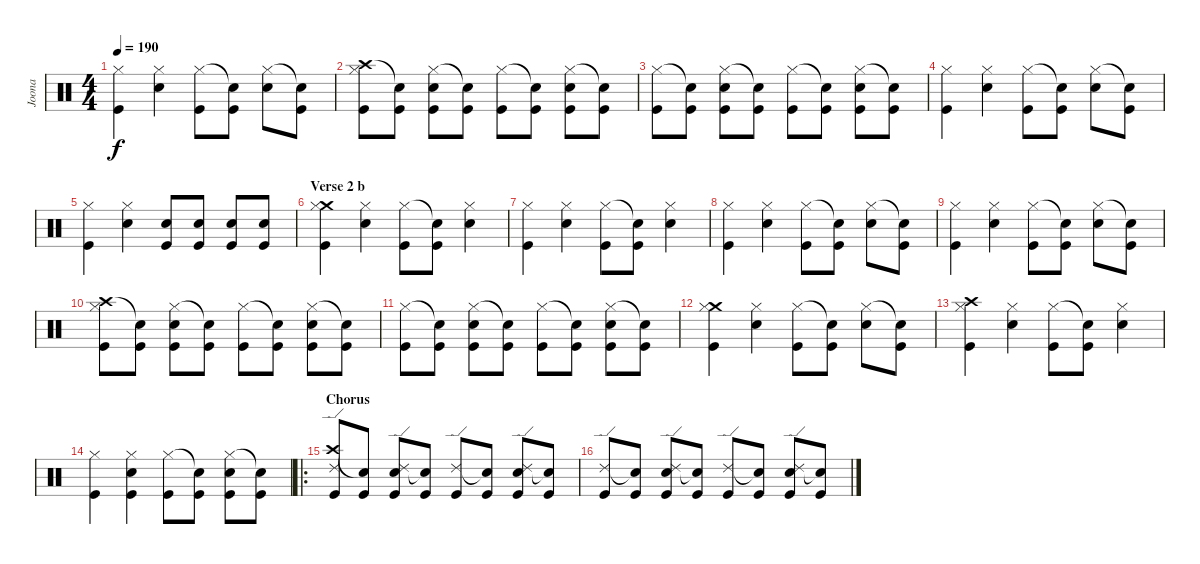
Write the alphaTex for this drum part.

\track ("Joona" "Joona") {instrument percussion}
\staff {score}
\articulation defaults
\ts (4 4)
\tempo 190
\clef neutral
\ks c
("Hi-Hat (closed)" "Kick (hit)").4{dy f} ("Hi-Hat (closed)" "Snare (hit) 2").4 ("Hi-Hat (closed)" "Kick (hit)").8 ("Snare (hit)"{t} "Kick (hit)").8 ("Hi-Hat (closed)" "Snare (hit) 2").8 ("Snare (hit)"{t} "Kick (hit)").8 |
("Crash high (hit)" "Hi-Hat (closed)" "Kick (hit)").8 ("Snare (hit)"{t} "Kick (hit)").8 ("Hi-Hat (closed)" "Snare (hit) 2" "Kick (hit)").8 ("Snare (hit)"{t} "Kick (hit)").8 ("Hi-Hat (closed)" "Kick (hit)").8 ("Snare (hit)"{t} "Kick (hit)").8 ("Hi-Hat (closed)" "Snare (hit) 2" "Kick (hit)").8 ("Snare (hit)"{t} "Kick (hit)").8 |
("Hi-Hat (closed)" "Kick (hit)").8 ("Snare (hit)"{t} "Kick (hit)").8 ("Hi-Hat (closed)" "Snare (hit) 2" "Kick (hit)").8 ("Snare (hit)"{t} "Kick (hit)").8 ("Hi-Hat (closed)" "Kick (hit)").8 ("Snare (hit)"{t} "Kick (hit)").8 ("Hi-Hat (closed)" "Snare (hit) 2" "Kick (hit)").8 ("Snare (hit)"{t} "Kick (hit)").8 |
("Hi-Hat (closed)" "Kick (hit)").4 ("Hi-Hat (closed)" "Snare (hit) 2").4 ("Hi-Hat (closed)" "Kick (hit)").8 ("Snare (hit)"{t} "Kick (hit)").8 ("Hi-Hat (closed)" "Snare (hit) 2").8 ("Snare (hit)"{t} "Kick (hit)").8 |
("Hi-Hat (closed)" "Kick (hit)").4 ("Hi-Hat (closed)" "Snare (hit) 2").4 ("Snare (hit) 2" "Kick (hit)").8 ("Snare (hit) 2" "Kick (hit)").8 ("Snare (hit) 2" "Kick (hit)").8 ("Snare (hit) 2" "Kick (hit)").8 |
\section ("" "Verse 2 b")
("Crash medium (hit)" "Hi-Hat (closed)" "Kick (hit)").4 ("Hi-Hat (closed)" "Snare (hit) 2").4 ("Hi-Hat (closed)" "Kick (hit)").8 ("Snare (hit)"{t} "Kick (hit)").8 ("Hi-Hat (closed)" "Snare (hit) 2").4 |
("Hi-Hat (closed)" "Kick (hit)").4 ("Hi-Hat (closed)" "Snare (hit) 2").4 ("Hi-Hat (closed)" "Kick (hit)").8 ("Snare (hit)"{t} "Kick (hit)").8 ("Hi-Hat (closed)" "Snare (hit) 2").4 |
("Hi-Hat (closed)" "Kick (hit)").4 ("Hi-Hat (closed)" "Snare (hit) 2").4 ("Hi-Hat (closed)" "Kick (hit)").8 ("Snare (hit)"{t} "Kick (hit)").8 ("Hi-Hat (closed)" "Snare (hit) 2").8 ("Snare (hit)"{t} "Kick (hit)").8 |
("Hi-Hat (closed)" "Kick (hit)").4 ("Hi-Hat (closed)" "Snare (hit) 2").4 ("Hi-Hat (closed)" "Kick (hit)").8 ("Snare (hit)"{t} "Kick (hit)").8 ("Hi-Hat (closed)" "Snare (hit) 2").8 ("Snare (hit)"{t} "Kick (hit)").8 |
("Crash high (hit)" "Hi-Hat (closed)" "Kick (hit)").8 ("Snare (hit)"{t} "Kick (hit)").8 ("Hi-Hat (closed)" "Snare (hit) 2" "Kick (hit)").8 ("Snare (hit)"{t} "Kick (hit)").8 ("Hi-Hat (closed)" "Kick (hit)").8 ("Snare (hit)"{t} "Kick (hit)").8 ("Hi-Hat (closed)" "Snare (hit) 2" "Kick (hit)").8 ("Snare (hit)"{t} "Kick (hit)").8 |
("Hi-Hat (closed)" "Kick (hit)").8 ("Snare (hit)"{t} "Kick (hit)").8 ("Hi-Hat (closed)" "Snare (hit) 2" "Kick (hit)").8 ("Snare (hit)"{t} "Kick (hit)").8 ("Hi-Hat (closed)" "Kick (hit)").8 ("Snare (hit)"{t} "Kick (hit)").8 ("Hi-Hat (closed)" "Snare (hit) 2" "Kick (hit)").8 ("Snare (hit)"{t} "Kick (hit)").8 |
("Crash medium (hit)" "Hi-Hat (closed)" "Kick (hit)").4 ("Hi-Hat (closed)" "Snare (hit) 2").4 ("Hi-Hat (closed)" "Kick (hit)").8 ("Snare (hit)"{t} "Kick (hit)").8 ("Hi-Hat (closed)" "Snare (hit) 2").8 ("Snare (hit)"{t} "Kick (hit)").8 |
("Crash high (hit)" "Hi-Hat (closed)" "Kick (hit)").4 ("Hi-Hat (closed)" "Snare (hit) 2").4 ("Hi-Hat (closed)" "Kick (hit)").8 ("Snare (hit)"{t} "Kick (hit)").8 ("Hi-Hat (closed)" "Snare (hit) 2").4 |
("Hi-Hat (closed)" "Kick (hit)").4 ("Hi-Hat (closed)" "Snare (hit) 2" "Kick (hit)").4 ("Hi-Hat (closed)" "Kick (hit)").8 ("Snare (hit)"{t} "Kick (hit)").8 ("Hi-Hat (closed)" "Snare (hit) 2" "Kick (hit)").8 ("Snare (hit)"{t} "Kick (hit)").8 |
\ro
\section ("" "Chorus")
("Crash high (hit)" "Ride (edge) 2" "Kick (hit)").8 ("Snare (hit)"{t} "Kick (hit)").8 ("Ride (edge) 2" "Snare (hit) 2" "Kick (hit)").8 ("Snare (hit)"{t} "Kick (hit)").8 ("Ride (edge) 2" "Kick (hit)").8 ("Snare (hit)"{t} "Kick (hit)").8 ("Ride (edge) 2" "Snare (hit) 2" "Kick (hit)").8 ("Snare (hit)"{t} "Kick (hit)").8 |
("Ride (edge) 2" "Kick (hit)").8 ("Snare (hit)"{t} "Kick (hit)").8 ("Ride (edge) 2" "Snare (hit) 2" "Kick (hit)").8 ("Snare (hit)"{t} "Kick (hit)").8 ("Ride (edge) 2" "Kick (hit)").8 ("Snare (hit)"{t} "Kick (hit)").8 ("Ride (edge) 2" "Snare (hit) 2" "Kick (hit)").8 ("Snare (hit)"{t} "Kick (hit)").8
